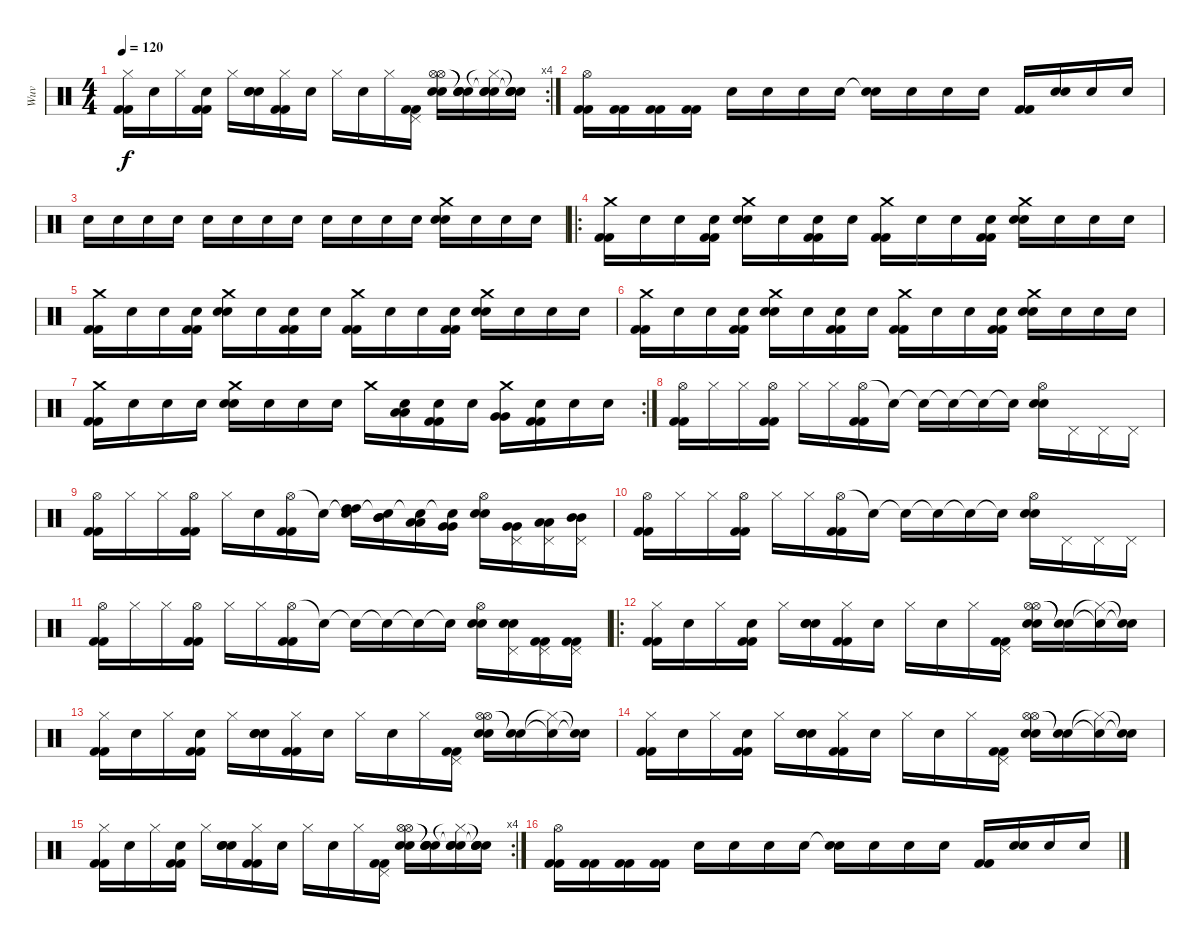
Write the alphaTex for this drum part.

\track ("Wuv" "Wuv") {instrument percussion}
\staff {score}
\articulation defaults
\rc 4
\ts (4 4)
\tempo 120
\clef neutral
\ks c
("Hi-Hat (closed)" "Kick (hit) 2" "Kick (hit) 2").16{dy f} "Snare (hit)".16 "Hi-Hat (closed)".16 ("Snare (hit)" "Kick (hit) 2" "Kick (hit) 2").16 "Hi-Hat (closed)".16 ("Snare (hit)" "Electric Snare (hit)" "Electric Snare (hit)").16 ("Hi-Hat (closed)" "Kick (hit) 2" "Kick (hit) 2").16 "Snare (hit)".16 "Hi-Hat (closed)".16 "Snare (hit)".16 "Hi-Hat (closed)".16 ("Pedal Hi-Hat (hit)" "Kick (hit) 2" "Kick (hit) 2").16 ("Hi-Hat (open)" "Hi-Hat (open)" "Electric Snare (hit)" "Electric Snare (hit)").16 ("Snare (hit)"{t} "Snare (hit)"{t} "Electric Snare (hit)" "Electric Snare (hit)").16 ("Hi-Hat (closed)"{t} "Snare (hit)"{t} "Electric Snare (hit)" "Electric Snare (hit)").16 ("Snare (hit)"{t} "Snare (hit)"{t} "Electric Snare (hit)" "Electric Snare (hit)").16 |
("Hi-Hat (open)" "Kick (hit) 2" "Kick (hit) 2").16 ("Kick (hit) 2" "Kick (hit) 2").16 ("Kick (hit) 2" "Kick (hit) 2").16 ("Kick (hit) 2" "Kick (hit) 2").16 "Snare (hit)".16 "Snare (hit)".16 "Snare (hit)".16 "Snare (hit)".16 ("Snare (hit)"{t} "Snare (hit)").16 "Snare (hit)".16 "Snare (hit)".16 "Snare (hit)".16 ("Kick (hit) 2" "Kick (hit) 2").16 ("Electric Snare (hit)" "Electric Snare (hit)").16 "Snare (hit)".16 "Snare (hit)".16 |
"Snare (hit)".16 "Snare (hit)".16 "Snare (hit)".16 "Snare (hit)".16 "Snare (hit)".16 "Snare (hit)".16 "Snare (hit)".16 "Snare (hit)".16 "Snare (hit)".16 "Snare (hit)".16 "Snare (hit)".16 "Snare (hit)".16 ("Crash medium (hit)" "Electric Snare (hit)" "Electric Snare (hit)").16 "Snare (hit)".16 "Snare (hit)".16 "Snare (hit)".16 |
\ro
("Crash medium (hit)" "Kick (hit) 2" "Kick (hit) 2").16 "Snare (hit)".16 "Snare (hit)".16 ("Snare (hit)" "Kick (hit) 2" "Kick (hit) 2").16 ("Crash medium (hit)" "Electric Snare (hit)" "Electric Snare (hit)").16 "Snare (hit)".16 ("Snare (hit)" "Kick (hit) 2" "Kick (hit) 2").16 "Snare (hit)".16 ("Crash medium (hit)" "Kick (hit) 2" "Kick (hit) 2").16 "Snare (hit)".16 "Snare (hit)".16 ("Snare (hit)" "Kick (hit) 2" "Kick (hit) 2").16 ("Crash medium (hit)" "Electric Snare (hit)" "Electric Snare (hit)").16 "Snare (hit)".16 "Snare (hit)".16 "Snare (hit)".16 |
("Crash medium (hit)" "Kick (hit) 2" "Kick (hit) 2").16 "Snare (hit)".16 "Snare (hit)".16 ("Snare (hit)" "Kick (hit) 2" "Kick (hit) 2").16 ("Crash medium (hit)" "Electric Snare (hit)" "Electric Snare (hit)").16 "Snare (hit)".16 ("Snare (hit)" "Kick (hit) 2" "Kick (hit) 2").16 "Snare (hit)".16 ("Crash medium (hit)" "Kick (hit) 2" "Kick (hit) 2").16 "Snare (hit)".16 "Snare (hit)".16 ("Snare (hit)" "Kick (hit) 2" "Kick (hit) 2").16 ("Crash medium (hit)" "Electric Snare (hit)" "Electric Snare (hit)").16 "Snare (hit)".16 "Snare (hit)".16 "Snare (hit)".16 |
("Crash medium (hit)" "Kick (hit) 2" "Kick (hit) 2").16 "Snare (hit)".16 "Snare (hit)".16 ("Snare (hit)" "Kick (hit) 2" "Kick (hit) 2").16 ("Crash medium (hit)" "Electric Snare (hit)" "Electric Snare (hit)").16 "Snare (hit)".16 ("Snare (hit)" "Kick (hit) 2" "Kick (hit) 2").16 "Snare (hit)".16 ("Crash medium (hit)" "Kick (hit) 2" "Kick (hit) 2").16 "Snare (hit)".16 "Snare (hit)".16 ("Snare (hit)" "Kick (hit) 2" "Kick (hit) 2").16 ("Crash medium (hit)" "Electric Snare (hit)" "Electric Snare (hit)").16 "Snare (hit)".16 "Snare (hit)".16 "Snare (hit)".16 |
\rc 2
("Crash medium (hit)" "Kick (hit) 2" "Kick (hit) 2").16 "Snare (hit)".16 "Snare (hit)".16 "Snare (hit)".16 ("Crash medium (hit)" "Electric Snare (hit)" "Electric Snare (hit)").16 "Snare (hit)".16 "Snare (hit)".16 "Snare (hit)".16 "Crash medium (hit)".16 ("Snare (hit)" "Low Tom (hit)" "Low Tom (hit)").16 ("Snare (hit)" "Kick (hit) 2" "Kick (hit) 2").16 "Snare (hit)".16 ("Crash medium (hit)" "Very Low Tom (hit)" "Very Low Tom (hit)").16 ("Snare (hit)" "Kick (hit) 2" "Kick (hit) 2").16 "Snare (hit)".16 "Snare (hit)".16 |
("Hi-Hat (open)" "Kick (hit) 2" "Kick (hit) 2").16 "Hi-Hat (closed)".16 "Hi-Hat (closed)".16 ("Hi-Hat (open)" "Kick (hit) 2" "Kick (hit) 2").16 "Hi-Hat (closed)".16 "Hi-Hat (closed)".16 ("Hi-Hat (open)" "Kick (hit) 2" "Kick (hit) 2").16 "Snare (hit)"{t}.16 "Snare (hit)"{t}.16 "Snare (hit)"{t}.16 "Snare (hit)"{t}.16 "Snare (hit)"{t}.16 ("Hi-Hat (open)" "Electric Snare (hit)" "Electric Snare (hit)").16 "Pedal Hi-Hat (hit)".16 "Pedal Hi-Hat (hit)".16 "Pedal Hi-Hat (hit)".16 |
("Hi-Hat (open)" "Kick (hit) 2" "Kick (hit) 2").16 "Hi-Hat (closed)".16 "Hi-Hat (closed)".16 ("Hi-Hat (open)" "Kick (hit) 2" "Kick (hit) 2").16 "Hi-Hat (closed)".16 "Snare (hit)".16 ("Hi-Hat (open)" "Kick (hit) 2" "Kick (hit) 2").16 "Snare (hit)"{t}.16 ("Snare (hit)"{t} "High Tom (hit)" "High Tom (hit)").16 ("Snare (hit)"{t} "Mid Tom (hit)" "Mid Tom (hit)").16 ("Snare (hit)"{t} "Low Tom (hit)" "Low Tom (hit)").16 ("Snare (hit)"{t} "Very Low Tom (hit)" "Very Low Tom (hit)").16 ("Hi-Hat (open)" "Electric Snare (hit)" "Electric Snare (hit)").16 ("Pedal Hi-Hat (hit)" "Very Low Tom (hit)" "Very Low Tom (hit)").16 ("Pedal Hi-Hat (hit)" "Low Tom (hit)" "Low Tom (hit)").16 ("Pedal Hi-Hat (hit)" "Mid Tom (hit)" "Mid Tom (hit)").16 |
("Hi-Hat (open)" "Kick (hit) 2" "Kick (hit) 2").16 "Hi-Hat (closed)".16 "Hi-Hat (closed)".16 ("Hi-Hat (open)" "Kick (hit) 2" "Kick (hit) 2").16 "Hi-Hat (closed)".16 "Hi-Hat (closed)".16 ("Hi-Hat (open)" "Kick (hit) 2" "Kick (hit) 2").16 "Snare (hit)"{t}.16 "Snare (hit)"{t}.16 "Snare (hit)"{t}.16 "Snare (hit)"{t}.16 "Snare (hit)"{t}.16 ("Hi-Hat (open)" "Electric Snare (hit)" "Electric Snare (hit)").16 "Pedal Hi-Hat (hit)".16 "Pedal Hi-Hat (hit)".16 "Pedal Hi-Hat (hit)".16 |
("Hi-Hat (open)" "Kick (hit) 2" "Kick (hit) 2").16 "Hi-Hat (closed)".16 "Hi-Hat (closed)".16 ("Hi-Hat (open)" "Kick (hit) 2" "Kick (hit) 2").16 "Hi-Hat (closed)".16 "Hi-Hat (closed)".16 ("Hi-Hat (open)" "Kick (hit) 2" "Kick (hit) 2").16 "Snare (hit)"{t}.16 "Snare (hit)"{t}.16 "Snare (hit)"{t}.16 "Snare (hit)"{t}.16 "Snare (hit)"{t}.16 ("Hi-Hat (open)" "Electric Snare (hit)" "Electric Snare (hit)").16 ("Pedal Hi-Hat (hit)" "Electric Snare (hit)" "Electric Snare (hit)").16 ("Pedal Hi-Hat (hit)" "Kick (hit) 2" "Kick (hit) 2").16 ("Pedal Hi-Hat (hit)" "Kick (hit) 2" "Kick (hit) 2").16 |
\ro
("Hi-Hat (closed)" "Kick (hit) 2" "Kick (hit) 2").16 "Snare (hit)".16 "Hi-Hat (closed)".16 ("Snare (hit)" "Kick (hit) 2" "Kick (hit) 2").16 "Hi-Hat (closed)".16 ("Snare (hit)" "Electric Snare (hit)" "Electric Snare (hit)").16 ("Hi-Hat (closed)" "Kick (hit) 2" "Kick (hit) 2").16 "Snare (hit)".16 "Hi-Hat (closed)".16 "Snare (hit)".16 "Hi-Hat (closed)".16 ("Pedal Hi-Hat (hit)" "Kick (hit) 2" "Kick (hit) 2").16 ("Hi-Hat (open)" "Hi-Hat (open)" "Electric Snare (hit)" "Electric Snare (hit)").16 ("Snare (hit)"{t} "Snare (hit)"{t}).16 ("Hi-Hat (closed)"{t} "Snare (hit)"{t}).16 ("Snare (hit)"{t} "Snare (hit)"{t}).16 |
("Hi-Hat (closed)" "Kick (hit) 2" "Kick (hit) 2").16 "Snare (hit)".16 "Hi-Hat (closed)".16 ("Snare (hit)" "Kick (hit) 2" "Kick (hit) 2").16 "Hi-Hat (closed)".16 ("Snare (hit)" "Electric Snare (hit)" "Electric Snare (hit)").16 ("Hi-Hat (closed)" "Kick (hit) 2" "Kick (hit) 2").16 "Snare (hit)".16 "Hi-Hat (closed)".16 "Snare (hit)".16 "Hi-Hat (closed)".16 ("Pedal Hi-Hat (hit)" "Kick (hit) 2" "Kick (hit) 2").16 ("Hi-Hat (open)" "Hi-Hat (open)" "Electric Snare (hit)" "Electric Snare (hit)").16 ("Snare (hit)"{t} "Snare (hit)"{t}).16 ("Hi-Hat (closed)"{t} "Snare (hit)"{t}).16 ("Snare (hit)"{t} "Snare (hit)"{t}).16 |
("Hi-Hat (closed)" "Kick (hit) 2" "Kick (hit) 2").16 "Snare (hit)".16 "Hi-Hat (closed)".16 ("Snare (hit)" "Kick (hit) 2" "Kick (hit) 2").16 "Hi-Hat (closed)".16 ("Snare (hit)" "Electric Snare (hit)" "Electric Snare (hit)").16 ("Hi-Hat (closed)" "Kick (hit) 2" "Kick (hit) 2").16 "Snare (hit)".16 "Hi-Hat (closed)".16 "Snare (hit)".16 "Hi-Hat (closed)".16 ("Pedal Hi-Hat (hit)" "Kick (hit) 2" "Kick (hit) 2").16 ("Hi-Hat (open)" "Hi-Hat (open)" "Electric Snare (hit)" "Electric Snare (hit)").16 ("Snare (hit)"{t} "Snare (hit)"{t}).16 ("Hi-Hat (closed)"{t} "Snare (hit)"{t}).16 ("Snare (hit)"{t} "Snare (hit)"{t}).16 |
\rc 4
("Hi-Hat (closed)" "Kick (hit) 2" "Kick (hit) 2").16 "Snare (hit)".16 "Hi-Hat (closed)".16 ("Snare (hit)" "Kick (hit) 2" "Kick (hit) 2").16 "Hi-Hat (closed)".16 ("Snare (hit)" "Electric Snare (hit)" "Electric Snare (hit)").16 ("Hi-Hat (closed)" "Kick (hit) 2" "Kick (hit) 2").16 "Snare (hit)".16 "Hi-Hat (closed)".16 "Snare (hit)".16 "Hi-Hat (closed)".16 ("Pedal Hi-Hat (hit)" "Kick (hit) 2" "Kick (hit) 2").16 ("Hi-Hat (open)" "Hi-Hat (open)" "Electric Snare (hit)" "Electric Snare (hit)").16 ("Snare (hit)"{t} "Snare (hit)"{t} "Electric Snare (hit)" "Electric Snare (hit)").16 ("Hi-Hat (closed)"{t} "Snare (hit)"{t} "Electric Snare (hit)" "Electric Snare (hit)").16 ("Snare (hit)"{t} "Snare (hit)"{t} "Electric Snare (hit)" "Electric Snare (hit)").16 |
("Hi-Hat (open)" "Kick (hit) 2" "Kick (hit) 2").16 ("Kick (hit) 2" "Kick (hit) 2").16 ("Kick (hit) 2" "Kick (hit) 2").16 ("Kick (hit) 2" "Kick (hit) 2").16 "Snare (hit)".16 "Snare (hit)".16 "Snare (hit)".16 "Snare (hit)".16 ("Snare (hit)"{t} "Snare (hit)").16 "Snare (hit)".16 "Snare (hit)".16 "Snare (hit)".16 ("Kick (hit) 2" "Kick (hit) 2").16 ("Electric Snare (hit)" "Electric Snare (hit)").16 "Snare (hit)".16 "Snare (hit)".16
